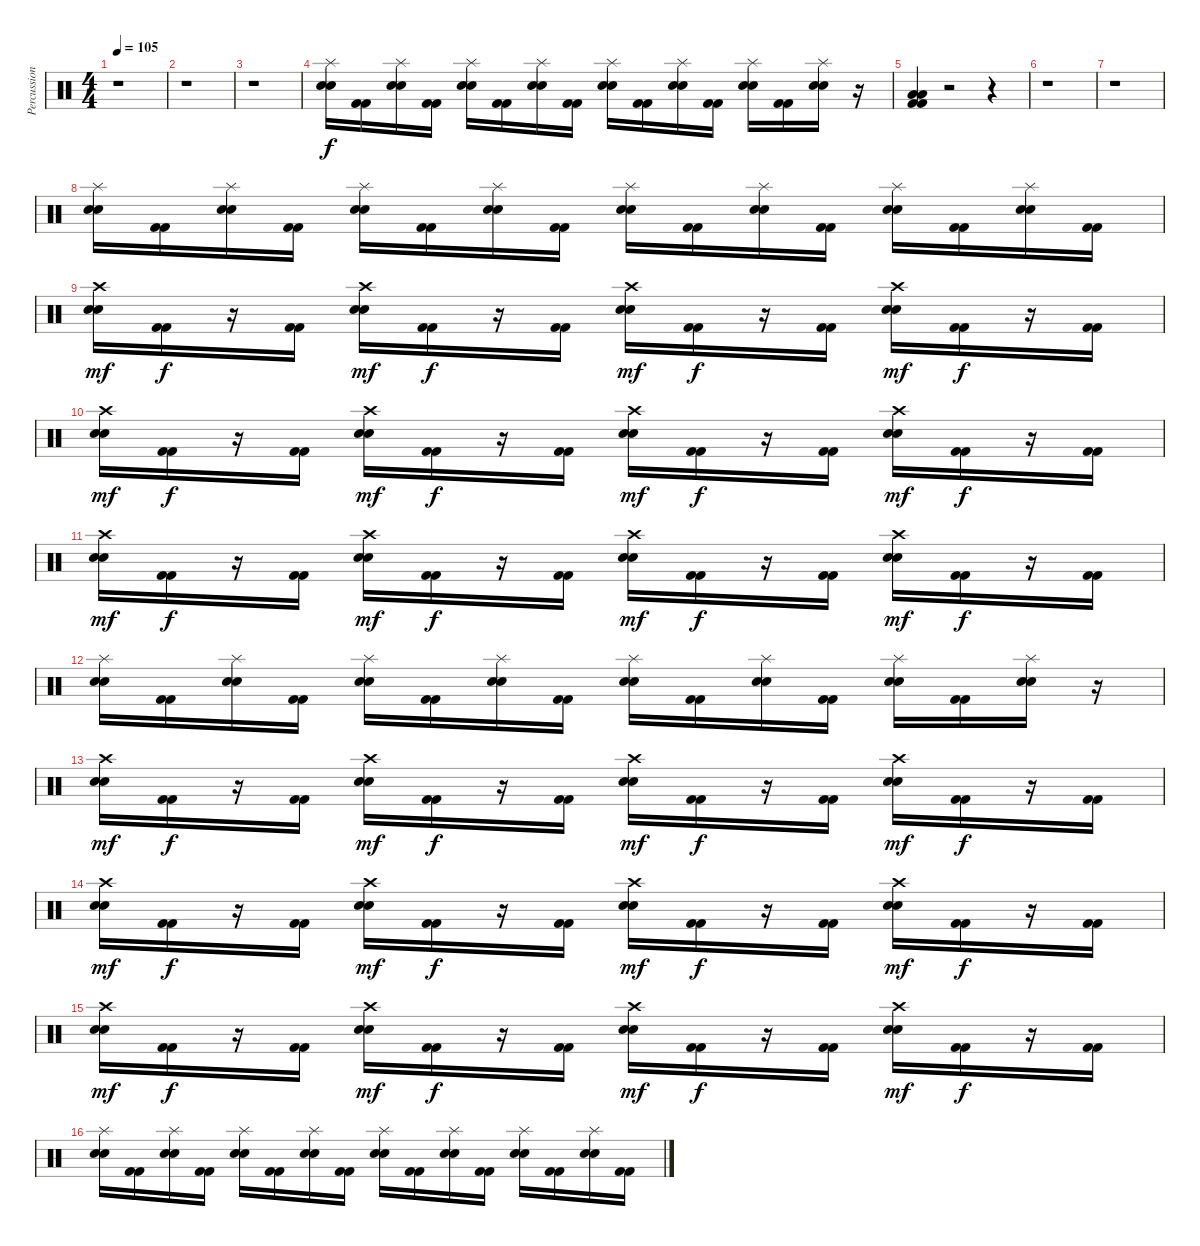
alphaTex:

\track ("Percussions" "Percussion") {instrument percussion}
\staff {score}
\articulation defaults
\ts (4 4)
\tempo 105
\clef neutral
\ks c
r.1{dy f} |
r.1 |
r.1 |
("Splash (hit)" "Electric Snare (hit)" "Electric Snare (hit)").16 ("Kick (hit) 2" "Kick (hit) 2").16 ("Splash (hit)" "Electric Snare (hit)" "Electric Snare (hit)").16 ("Kick (hit) 2" "Kick (hit) 2").16 ("Splash (hit)" "Electric Snare (hit)" "Electric Snare (hit)").16 ("Kick (hit) 2" "Kick (hit) 2").16 ("Splash (hit)" "Electric Snare (hit)" "Electric Snare (hit)").16 ("Kick (hit) 2" "Kick (hit) 2").16 ("Splash (hit)" "Electric Snare (hit)" "Electric Snare (hit)").16 ("Kick (hit) 2" "Kick (hit) 2").16 ("Splash (hit)" "Electric Snare (hit)" "Electric Snare (hit)").16 ("Kick (hit) 2" "Kick (hit) 2").16 ("Splash (hit)" "Electric Snare (hit)" "Electric Snare (hit)").16 ("Kick (hit) 2" "Kick (hit) 2").16 ("Splash (hit)" "Electric Snare (hit)" "Electric Snare (hit)").16 r.16 |
("Low Floor Tom (hit)" "Low Floor Tom (hit)" "Kick (hit) 2" "Kick (hit) 2").4 r.2 r.4 |
r.1 |
r.1 |
("Splash (hit)" "Electric Snare (hit)" "Electric Snare (hit)").16 ("Kick (hit) 2" "Kick (hit) 2").16 ("Splash (hit)" "Electric Snare (hit)" "Electric Snare (hit)").16 ("Kick (hit) 2" "Kick (hit) 2").16 ("Splash (hit)" "Electric Snare (hit)" "Electric Snare (hit)").16 ("Kick (hit) 2" "Kick (hit) 2").16 ("Splash (hit)" "Electric Snare (hit)" "Electric Snare (hit)").16 ("Kick (hit) 2" "Kick (hit) 2").16 ("Splash (hit)" "Electric Snare (hit)" "Electric Snare (hit)").16 ("Kick (hit) 2" "Kick (hit) 2").16 ("Splash (hit)" "Electric Snare (hit)" "Electric Snare (hit)").16 ("Kick (hit) 2" "Kick (hit) 2").16 ("Splash (hit)" "Electric Snare (hit)" "Electric Snare (hit)").16 ("Kick (hit) 2" "Kick (hit) 2").16 ("Splash (hit)" "Electric Snare (hit)" "Electric Snare (hit)").16 ("Kick (hit) 2" "Kick (hit) 2").16 |
("Crash high (hit)" "Electric Snare (hit)" "Electric Snare (hit)").16{dy mf} ("Kick (hit) 2" "Kick (hit) 2").16{dy f} r.16 ("Kick (hit) 2" "Kick (hit) 2").16 ("Crash high (hit)" "Electric Snare (hit)" "Electric Snare (hit)").16{dy mf} ("Kick (hit) 2" "Kick (hit) 2").16{dy f} r.16 ("Kick (hit) 2" "Kick (hit) 2").16 ("Crash high (hit)" "Electric Snare (hit)" "Electric Snare (hit)").16{dy mf} ("Kick (hit) 2" "Kick (hit) 2").16{dy f} r.16 ("Kick (hit) 2" "Kick (hit) 2").16 ("Crash high (hit)" "Electric Snare (hit)" "Electric Snare (hit)").16{dy mf} ("Kick (hit) 2" "Kick (hit) 2").16{dy f} r.16 ("Kick (hit) 2" "Kick (hit) 2").16 |
("Crash high (hit)" "Electric Snare (hit)" "Electric Snare (hit)").16{dy mf} ("Kick (hit) 2" "Kick (hit) 2").16{dy f} r.16 ("Kick (hit) 2" "Kick (hit) 2").16 ("Crash high (hit)" "Electric Snare (hit)" "Electric Snare (hit)").16{dy mf} ("Kick (hit) 2" "Kick (hit) 2").16{dy f} r.16 ("Kick (hit) 2" "Kick (hit) 2").16 ("Crash high (hit)" "Electric Snare (hit)" "Electric Snare (hit)").16{dy mf} ("Kick (hit) 2" "Kick (hit) 2").16{dy f} r.16 ("Kick (hit) 2" "Kick (hit) 2").16 ("Crash high (hit)" "Electric Snare (hit)" "Electric Snare (hit)").16{dy mf} ("Kick (hit) 2" "Kick (hit) 2").16{dy f} r.16 ("Kick (hit) 2" "Kick (hit) 2").16 |
("Crash high (hit)" "Electric Snare (hit)" "Electric Snare (hit)").16{dy mf} ("Kick (hit) 2" "Kick (hit) 2").16{dy f} r.16 ("Kick (hit) 2" "Kick (hit) 2").16 ("Crash high (hit)" "Electric Snare (hit)" "Electric Snare (hit)").16{dy mf} ("Kick (hit) 2" "Kick (hit) 2").16{dy f} r.16 ("Kick (hit) 2" "Kick (hit) 2").16 ("Crash high (hit)" "Electric Snare (hit)" "Electric Snare (hit)").16{dy mf} ("Kick (hit) 2" "Kick (hit) 2").16{dy f} r.16 ("Kick (hit) 2" "Kick (hit) 2").16 ("Crash high (hit)" "Electric Snare (hit)" "Electric Snare (hit)").16{dy mf} ("Kick (hit) 2" "Kick (hit) 2").16{dy f} r.16 ("Kick (hit) 2" "Kick (hit) 2").16 |
("Splash (hit)" "Electric Snare (hit)" "Electric Snare (hit)").16 ("Kick (hit) 2" "Kick (hit) 2").16 ("Splash (hit)" "Electric Snare (hit)" "Electric Snare (hit)").16 ("Kick (hit) 2" "Kick (hit) 2").16 ("Splash (hit)" "Electric Snare (hit)" "Electric Snare (hit)").16 ("Kick (hit) 2" "Kick (hit) 2").16 ("Splash (hit)" "Electric Snare (hit)" "Electric Snare (hit)").16 ("Kick (hit) 2" "Kick (hit) 2").16 ("Splash (hit)" "Electric Snare (hit)" "Electric Snare (hit)").16 ("Kick (hit) 2" "Kick (hit) 2").16 ("Splash (hit)" "Electric Snare (hit)" "Electric Snare (hit)").16 ("Kick (hit) 2" "Kick (hit) 2").16 ("Splash (hit)" "Electric Snare (hit)" "Electric Snare (hit)").16 ("Kick (hit) 2" "Kick (hit) 2").16 ("Splash (hit)" "Electric Snare (hit)" "Electric Snare (hit)").16 r.16 |
("Crash high (hit)" "Electric Snare (hit)" "Electric Snare (hit)").16{dy mf} ("Kick (hit) 2" "Kick (hit) 2").16{dy f} r.16 ("Kick (hit) 2" "Kick (hit) 2").16 ("Crash high (hit)" "Electric Snare (hit)" "Electric Snare (hit)").16{dy mf} ("Kick (hit) 2" "Kick (hit) 2").16{dy f} r.16 ("Kick (hit) 2" "Kick (hit) 2").16 ("Crash high (hit)" "Electric Snare (hit)" "Electric Snare (hit)").16{dy mf} ("Kick (hit) 2" "Kick (hit) 2").16{dy f} r.16 ("Kick (hit) 2" "Kick (hit) 2").16 ("Crash high (hit)" "Electric Snare (hit)" "Electric Snare (hit)").16{dy mf} ("Kick (hit) 2" "Kick (hit) 2").16{dy f} r.16 ("Kick (hit) 2" "Kick (hit) 2").16 |
("Crash high (hit)" "Electric Snare (hit)" "Electric Snare (hit)").16{dy mf} ("Kick (hit) 2" "Kick (hit) 2").16{dy f} r.16 ("Kick (hit) 2" "Kick (hit) 2").16 ("Crash high (hit)" "Electric Snare (hit)" "Electric Snare (hit)").16{dy mf} ("Kick (hit) 2" "Kick (hit) 2").16{dy f} r.16 ("Kick (hit) 2" "Kick (hit) 2").16 ("Crash high (hit)" "Electric Snare (hit)" "Electric Snare (hit)").16{dy mf} ("Kick (hit) 2" "Kick (hit) 2").16{dy f} r.16 ("Kick (hit) 2" "Kick (hit) 2").16 ("Crash high (hit)" "Electric Snare (hit)" "Electric Snare (hit)").16{dy mf} ("Kick (hit) 2" "Kick (hit) 2").16{dy f} r.16 ("Kick (hit) 2" "Kick (hit) 2").16 |
("Crash high (hit)" "Electric Snare (hit)" "Electric Snare (hit)").16{dy mf} ("Kick (hit) 2" "Kick (hit) 2").16{dy f} r.16 ("Kick (hit) 2" "Kick (hit) 2").16 ("Crash high (hit)" "Electric Snare (hit)" "Electric Snare (hit)").16{dy mf} ("Kick (hit) 2" "Kick (hit) 2").16{dy f} r.16 ("Kick (hit) 2" "Kick (hit) 2").16 ("Crash high (hit)" "Electric Snare (hit)" "Electric Snare (hit)").16{dy mf} ("Kick (hit) 2" "Kick (hit) 2").16{dy f} r.16 ("Kick (hit) 2" "Kick (hit) 2").16 ("Crash high (hit)" "Electric Snare (hit)" "Electric Snare (hit)").16{dy mf} ("Kick (hit) 2" "Kick (hit) 2").16{dy f} r.16 ("Kick (hit) 2" "Kick (hit) 2").16 |
("Splash (hit)" "Electric Snare (hit)" "Electric Snare (hit)").16 ("Kick (hit) 2" "Kick (hit) 2").16 ("Splash (hit)" "Electric Snare (hit)" "Electric Snare (hit)").16 ("Kick (hit) 2" "Kick (hit) 2").16 ("Splash (hit)" "Electric Snare (hit)" "Electric Snare (hit)").16 ("Kick (hit) 2" "Kick (hit) 2").16 ("Splash (hit)" "Electric Snare (hit)" "Electric Snare (hit)").16 ("Kick (hit) 2" "Kick (hit) 2").16 ("Splash (hit)" "Electric Snare (hit)" "Electric Snare (hit)").16 ("Kick (hit) 2" "Kick (hit) 2").16 ("Splash (hit)" "Electric Snare (hit)" "Electric Snare (hit)").16 ("Kick (hit) 2" "Kick (hit) 2").16 ("Splash (hit)" "Electric Snare (hit)" "Electric Snare (hit)").16 ("Kick (hit) 2" "Kick (hit) 2").16 ("Splash (hit)" "Electric Snare (hit)" "Electric Snare (hit)").16 ("Kick (hit) 2" "Kick (hit) 2").16
